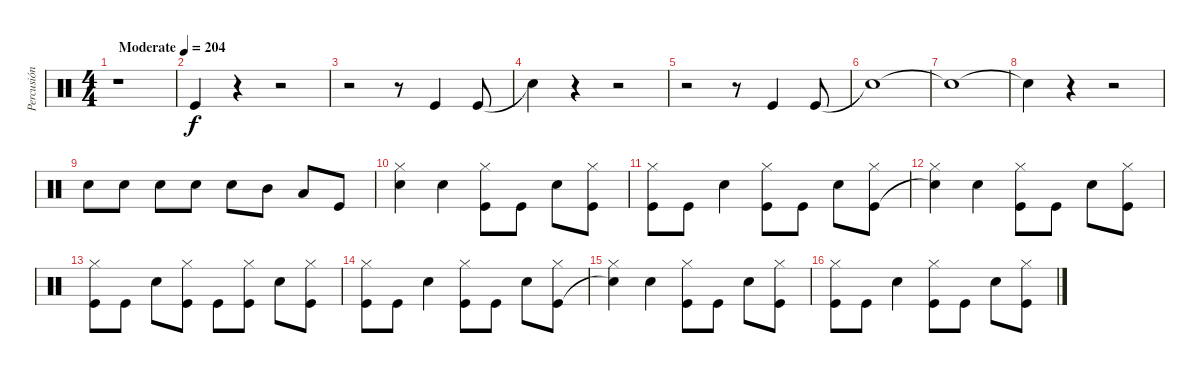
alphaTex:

\track ("Percusión" "Percusión") {instrument percussion}
\staff {score}
\articulation defaults
\ts (4 4)
\tempo (204 "Moderate")
\clef neutral
\ks c
r.1{dy f} |
"Kick (hit)".4 r.4 r.2 |
r.2 r.8 "Kick (hit)".4 "Kick (hit)".8 |
"Snare (hit)"{t}.4 r.4 r.2 |
r.2 r.8 "Kick (hit)".4 "Kick (hit)".8 |
"Snare (hit)"{t}.1 |
"Snare (hit)"{t}.1 |
"Snare (hit)"{t}.4 r.4 r.2 |
"Snare (hit) 2".8 "Snare (hit) 2".8 "Snare (hit) 2".8 "Snare (hit) 2".8 "Snare (hit) 2".8 "Mid Tom (hit)".8 "Low Tom (hit)".8 "Kick (hit)".8 |
("Hi-Hat (closed)" "Snare (hit)").4 "Snare (hit) 2".4 ("Hi-Hat (closed)" "Kick (hit)").8 "Kick (hit)".8 "Snare (hit) 2".8 ("Hi-Hat (closed)" "Kick (hit)").8 |
("Hi-Hat (closed)" "Kick (hit)").8 "Kick (hit)".8 "Snare (hit) 2".4 ("Hi-Hat (closed)" "Kick (hit)").8 "Kick (hit)".8 "Snare (hit) 2".8 ("Hi-Hat (closed)" "Kick (hit)").8 |
("Hi-Hat (closed)" "Snare (hit)"{t}).4 "Snare (hit) 2".4 ("Hi-Hat (closed)" "Kick (hit)").8 "Kick (hit)".8 "Snare (hit) 2".8 ("Hi-Hat (closed)" "Kick (hit)").8 |
("Hi-Hat (closed)" "Kick (hit)").8 "Kick (hit)".8 "Snare (hit) 2".8 ("Hi-Hat (closed)" "Kick (hit)").8 "Kick (hit)".8 ("Hi-Hat (closed)" "Kick (hit)").8 "Snare (hit) 2".8 ("Hi-Hat (closed)" "Kick (hit)").8 |
("Hi-Hat (closed)" "Kick (hit)").8 "Kick (hit)".8 "Snare (hit) 2".4 ("Hi-Hat (closed)" "Kick (hit)").8 "Kick (hit)".8 "Snare (hit) 2".8 ("Hi-Hat (closed)" "Kick (hit)").8 |
("Hi-Hat (closed)" "Snare (hit)"{t}).4 "Snare (hit) 2".4 ("Hi-Hat (closed)" "Kick (hit)").8 "Kick (hit)".8 "Snare (hit) 2".8 ("Hi-Hat (closed)" "Kick (hit)").8 |
("Hi-Hat (closed)" "Kick (hit)").8 "Kick (hit)".8 "Snare (hit) 2".4 ("Hi-Hat (closed)" "Kick (hit)").8 "Kick (hit)".8 "Snare (hit) 2".8 ("Hi-Hat (closed)" "Kick (hit)").8
